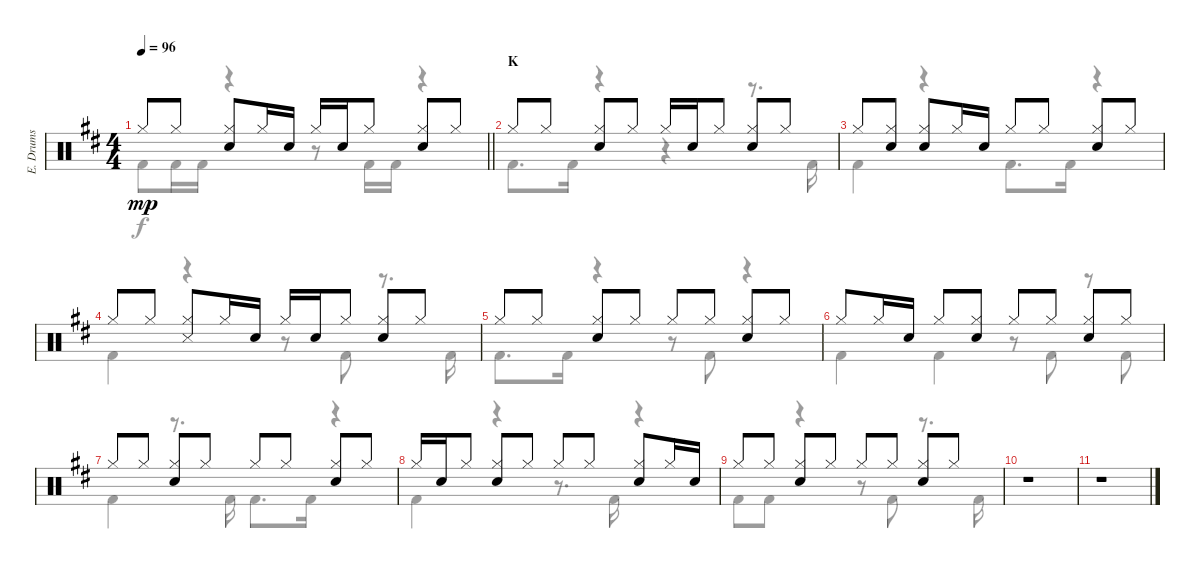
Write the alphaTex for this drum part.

\track ("E. Drums" "E. Drums") {instrument percussion}
\staff {score}
\articulation defaults
\voice
\ts (4 4)
\tempo 96
\clef neutral
\barLineRight lightlight
\ks d "Hi-Hat (closed)".8{dy mp} "Hi-Hat (closed)".8
("Hi-Hat (closed)" "Electric Snare (hit)").8 "Hi-Hat (closed)".16 "Electric Snare (hit)".16 "Hi-Hat (closed)".16 "Electric Snare (hit)".16 "Hi-Hat (closed)".8 ("Hi-Hat (closed)" "Electric Snare (hit)").8 "Hi-Hat (closed)".8 |
\section ("" "K")
"Hi-Hat (closed)".8 "Hi-Hat (closed)".8 ("Hi-Hat (closed)" "Electric Snare (hit)").8 "Hi-Hat (closed)".8 "Hi-Hat (closed)".16 "Electric Snare (hit)".16 "Hi-Hat (closed)".8 ("Hi-Hat (closed)" "Electric Snare (hit)").8 "Hi-Hat (closed)".8 |
"Hi-Hat (closed)".8 ("Hi-Hat (closed)" "Electric Snare (hit)").8 ("Hi-Hat (closed)" "Electric Snare (hit)").8 "Hi-Hat (closed)".16 "Electric Snare (hit)".16 "Hi-Hat (closed)".8 "Hi-Hat (closed)".8 ("Hi-Hat (closed)" "Electric Snare (hit)").8 "Hi-Hat (closed)".8 |
"Hi-Hat (closed)".8 "Hi-Hat (closed)".8 ("Hi-Hat (closed)" "Snare (side stick) 3").8 "Hi-Hat (closed)".16 "Electric Snare (hit)".16 "Hi-Hat (closed)".16 "Electric Snare (hit)".16 "Hi-Hat (closed)".8 ("Hi-Hat (closed)" "Electric Snare (hit)").8 "Hi-Hat (closed)".8 |
"Hi-Hat (closed)".8 "Hi-Hat (closed)".8 ("Hi-Hat (closed)" "Electric Snare (hit)").8 "Hi-Hat (closed)".8 "Hi-Hat (closed)".8 "Hi-Hat (closed)".8 ("Hi-Hat (closed)" "Electric Snare (hit)").8 "Hi-Hat (closed)".8 |
"Hi-Hat (closed)".8 "Hi-Hat (closed)".16 "Electric Snare (hit)".16 "Hi-Hat (closed)".8 ("Hi-Hat (closed)" "Electric Snare (hit)").8 "Hi-Hat (closed)".8 "Hi-Hat (closed)".8 ("Hi-Hat (closed)" "Electric Snare (hit)").8 "Hi-Hat (closed)".8 |
"Hi-Hat (closed)".8 "Hi-Hat (closed)".8 ("Hi-Hat (closed)" "Electric Snare (hit)").8 "Hi-Hat (closed)".8 "Hi-Hat (closed)".8 "Hi-Hat (closed)".8 ("Hi-Hat (closed)" "Electric Snare (hit)").8 "Hi-Hat (closed)".8 |
"Hi-Hat (closed)".16 "Electric Snare (hit)".16 "Hi-Hat (closed)".8 ("Hi-Hat (closed)" "Electric Snare (hit)").8 "Hi-Hat (closed)".8 "Hi-Hat (closed)".8 "Hi-Hat (closed)".8 ("Hi-Hat (closed)" "Electric Snare (hit)").8 "Hi-Hat (closed)".16 "Electric Snare (hit)".16 |
"Hi-Hat (closed)".8 "Hi-Hat (closed)".8 ("Hi-Hat (closed)" "Electric Snare (hit)").8 "Hi-Hat (closed)".8 "Hi-Hat (closed)".8 "Hi-Hat (closed)".8 ("Hi-Hat (closed)" "Electric Snare (hit)").8 "Hi-Hat (closed)".8 |
r.1 |
r.1
\voice
\clef neutral
\ottava regular
\simile none
\barLineRight lightlight
\ks d "Kick (hit) 2".8{dy f} "Kick (hit) 2".16 "Kick (hit) 2".16
r.4 r.8 "Kick (hit) 2".16 "Kick (hit) 2".16 r.4 |
"Kick (hit) 2".8{d} "Kick (hit) 2".16 r.4 r.4 r.8{d} "Kick (hit) 2".16 |
"Kick (hit) 2".4 r.4 "Kick (hit) 2".8{d} "Kick (hit) 2".16 r.4 |
"Kick (hit) 2".4 r.4 r.8 "Kick (hit) 2".8 r.8{d} "Kick (hit) 2".16 |
"Kick (hit) 2".8{d} "Kick (hit) 2".16 r.4 r.8 "Kick (hit) 2".8 r.4 |
"Kick (hit) 2".4 "Kick (hit) 2".4 r.8 "Kick (hit) 2".8 r.8 "Kick (hit) 2".8 |
"Kick (hit) 2".4 r.8{d} "Kick (hit) 2".16 "Kick (hit) 2".8{d} "Kick (hit) 2".16 r.4 |
"Kick (hit) 2".4 r.4 r.8{d} "Kick (hit) 2".16 r.4 |
"Kick (hit) 2".8 "Kick (hit) 2".8 r.4 r.8 "Kick (hit) 2".8 r.8{d} "Kick (hit) 2".16 |
r.1 |
r.1
